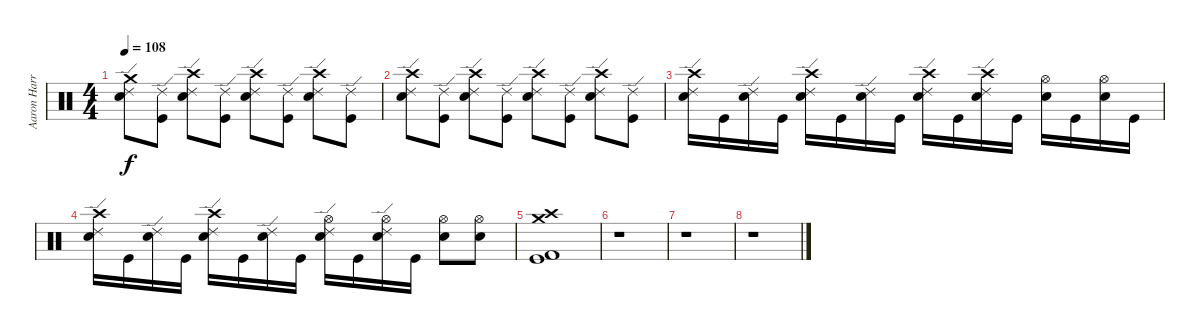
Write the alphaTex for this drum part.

\track ("Aaron Harris" "Aaron Harr") {instrument percussion}
\staff {score}
\articulation defaults
\ts (4 4)
\tempo 108
\clef neutral
\ks c
("Crash medium (hit)" "Ride (edge) 2" "Electric Snare (hit)").8{dy f} ("Ride (edge) 2" "Kick (hit)").8 ("Crash high (hit)" "Ride (edge) 2" "Electric Snare (hit)").8 ("Ride (edge) 2" "Kick (hit)").8 ("Crash high (hit)" "Ride (edge) 2" "Electric Snare (hit)").8 ("Ride (edge) 2" "Kick (hit)").8 ("Crash high (hit)" "Ride (edge) 2" "Electric Snare (hit)").8 ("Ride (edge) 2" "Kick (hit)").8 |
("Crash high (hit)" "Ride (edge) 2" "Electric Snare (hit)").8 ("Ride (edge) 2" "Kick (hit)").8 ("Crash high (hit)" "Ride (edge) 2" "Electric Snare (hit)").8 ("Ride (edge) 2" "Kick (hit)").8 ("Crash high (hit)" "Ride (edge) 2" "Electric Snare (hit)").8 ("Ride (edge) 2" "Kick (hit)").8 ("Crash high (hit)" "Ride (edge) 2" "Electric Snare (hit)").8 ("Ride (edge) 2" "Kick (hit)").8 |
("Crash high (hit)" "Ride (edge) 2" "Electric Snare (hit)").16 "Kick (hit)".16 ("Ride (edge) 2" "Electric Snare (hit)").16 "Kick (hit)".16 ("Crash high (hit)" "Ride (edge) 2" "Electric Snare (hit)").16 "Kick (hit)".16 ("Ride (edge) 2" "Electric Snare (hit)").16 "Kick (hit)".16 ("Crash high (hit)" "Ride (edge) 2" "Electric Snare (hit)").16 "Kick (hit)".16 ("Crash high (hit)" "Ride (edge) 2" "Electric Snare (hit)").16 "Kick (hit)".16 ("Hi-Hat (open)" "Electric Snare (hit)").16 "Kick (hit)".16 ("Hi-Hat (open)" "Electric Snare (hit)").16 "Kick (hit)".16 |
("Crash high (hit)" "Ride (edge) 2" "Electric Snare (hit)").16 "Kick (hit)".16 ("Ride (edge) 2" "Electric Snare (hit)").16 "Kick (hit)".16 ("Crash high (hit)" "Ride (edge) 2" "Electric Snare (hit)").16 "Kick (hit)".16 ("Ride (edge) 2" "Electric Snare (hit)").16 "Kick (hit)".16 ("Hi-Hat (open)" "Ride (edge) 2" "Electric Snare (hit)").16 "Kick (hit)".16 ("Hi-Hat (open)" "Ride (edge) 2" "Electric Snare (hit)").16 "Kick (hit)".16 ("Hi-Hat (open)" "Electric Snare (hit)").8 ("Hi-Hat (open)" "Electric Snare (hit)").8 |
("Crash medium (hit)" "Crash high (hit)" "Kick (hit) 2" "Kick (hit)").1 |
r.1 |
r.1 |
r.1
